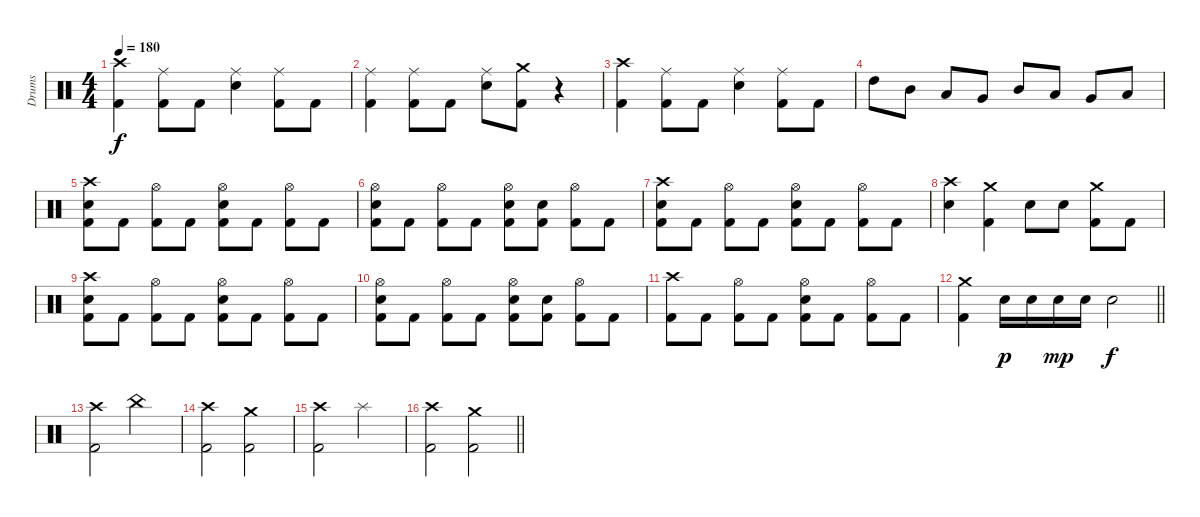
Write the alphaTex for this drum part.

\track ("Drums" "Drums") {instrument percussion}
\staff {score}
\articulation defaults
\ts (4 4)
\tempo 180
\clef neutral
\ks c
("Crash high (hit)" "Kick (hit) 2").4{dy f} ("Ride (middle)" "Kick (hit) 2").8 "Kick (hit) 2".8 ("Ride (middle)" "Electric Snare (hit)").4 ("Ride (middle)" "Kick (hit) 2").8 "Kick (hit) 2".8 |
("Ride (middle)" "Kick (hit) 2").4 ("Ride (middle)" "Kick (hit) 2").8 "Kick (hit) 2".8 ("Ride (middle)" "Electric Snare (hit)").8 ("Crash medium (hit)" "Kick (hit) 2").8 r.4 |
("Crash high (hit)" "Kick (hit) 2").4 ("Ride (middle)" "Kick (hit) 2").8 "Kick (hit) 2".8 ("Ride (middle)" "Electric Snare (hit)").4 ("Ride (middle)" "Kick (hit) 2").8 "Kick (hit) 2".8 |
"High Tom (hit)".8 "Mid Tom (hit)".8 "Low Tom (hit)".8 "Very Low Tom (hit)".8 "Mid Tom (hit)".8 "Low Tom (hit)".8 "Very Low Tom (hit)".8 "Low Floor Tom (hit)".8 |
("Crash high (hit)" "Electric Snare (hit)" "Kick (hit) 2").8 "Kick (hit) 2".8 ("Hi-Hat (open)" "Kick (hit) 2").8 "Kick (hit) 2".8 ("Hi-Hat (open)" "Electric Snare (hit)" "Kick (hit) 2").8 "Kick (hit) 2".8 ("Hi-Hat (open)" "Kick (hit) 2").8 "Kick (hit) 2".8 |
("Hi-Hat (open)" "Electric Snare (hit)" "Kick (hit) 2").8 "Kick (hit) 2".8 ("Hi-Hat (open)" "Kick (hit) 2").8 "Kick (hit) 2".8 ("Hi-Hat (open)" "Electric Snare (hit)" "Kick (hit) 2").8 ("Electric Snare (hit)" "Kick (hit) 2").8 ("Hi-Hat (open)" "Kick (hit) 2").8 "Kick (hit) 2".8 |
("Crash high (hit)" "Electric Snare (hit)" "Kick (hit) 2").8 "Kick (hit) 2".8 ("Hi-Hat (open)" "Kick (hit) 2").8 "Kick (hit) 2".8 ("Hi-Hat (open)" "Electric Snare (hit)" "Kick (hit) 2").8 "Kick (hit) 2".8 ("Hi-Hat (open)" "Kick (hit) 2").8 "Kick (hit) 2".8 |
("Crash high (hit)" "Electric Snare (hit)").4 ("Crash medium (hit)" "Kick (hit) 2").4 "Electric Snare (hit)".8 "Electric Snare (hit)".8 ("Crash medium (hit)" "Kick (hit) 2").8 "Kick (hit) 2".8 |
("Crash high (hit)" "Electric Snare (hit)" "Kick (hit) 2").8 "Kick (hit) 2".8 ("Hi-Hat (open)" "Kick (hit) 2").8 "Kick (hit) 2".8 ("Hi-Hat (open)" "Electric Snare (hit)" "Kick (hit) 2").8 "Kick (hit) 2".8 ("Hi-Hat (open)" "Kick (hit) 2").8 "Kick (hit) 2".8 |
("Hi-Hat (open)" "Electric Snare (hit)" "Kick (hit) 2").8 "Kick (hit) 2".8 ("Hi-Hat (open)" "Kick (hit) 2").8 "Kick (hit) 2".8 ("Hi-Hat (open)" "Electric Snare (hit)" "Kick (hit) 2").8 ("Electric Snare (hit)" "Kick (hit) 2").8 ("Hi-Hat (open)" "Kick (hit) 2").8 "Kick (hit) 2".8 |
("Crash high (hit)" "Kick (hit) 2").8 "Kick (hit) 2".8 ("Hi-Hat (open)" "Kick (hit) 2").8 "Kick (hit) 2".8 ("Hi-Hat (open)" "Electric Snare (hit)" "Kick (hit) 2").8 "Kick (hit) 2".8 ("Hi-Hat (open)" "Kick (hit) 2").8 "Kick (hit) 2".8 |
\barLineRight lightlight
("Crash medium (hit)" "Kick (hit) 2").4 "Electric Snare (hit)".16{dy p} "Electric Snare (hit)".16 "Electric Snare (hit)".16{dy mp} "Electric Snare (hit)".16 "Electric Snare (hit)".2{dy f} |
\section ("" "")
("Crash high (hit)" "Kick (hit) 2").2 "China (hit)".2 |
("Crash high (hit)" "Kick (hit) 2").2 ("Crash medium (hit)" "Kick (hit) 2").2 |
("Crash high (hit)" "Kick (hit) 2").2 "Splash (hit)".2 |
\barLineRight lightlight
("Crash high (hit)" "Kick (hit) 2").2 ("Crash medium (hit)" "Kick (hit) 2").2
